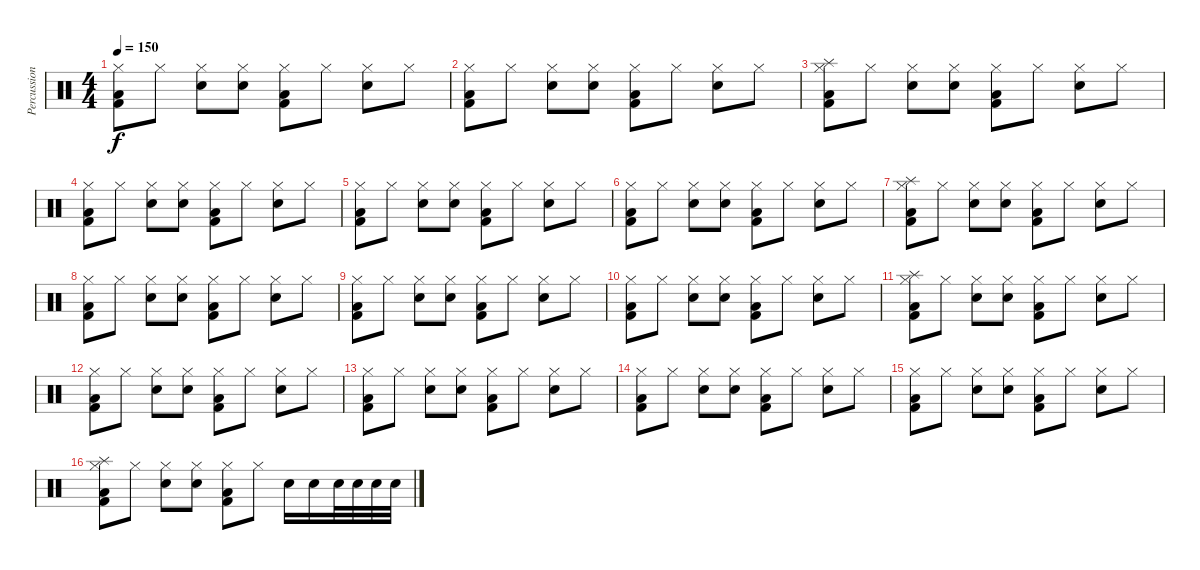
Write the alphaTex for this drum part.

\track ("Percussions" "Percussion") {instrument percussion}
\staff {score}
\articulation defaults
\ts (4 4)
\tempo 150
\clef neutral
\ks c
("Low Floor Tom (hit)" "Kick (hit) 2" "Hi-Hat (closed)").8{dy f} "Hi-Hat (closed)".8 ("Electric Snare (hit)" "Hi-Hat (closed)").8 ("Electric Snare (hit)" "Hi-Hat (closed)").8 ("Low Floor Tom (hit)" "Kick (hit) 2" "Hi-Hat (closed)").8 "Hi-Hat (closed)".8 ("Electric Snare (hit)" "Hi-Hat (closed)").8 "Hi-Hat (closed)".8 |
("Low Floor Tom (hit)" "Kick (hit) 2" "Hi-Hat (closed)").8 "Hi-Hat (closed)".8 ("Electric Snare (hit)" "Hi-Hat (closed)").8 ("Electric Snare (hit)" "Hi-Hat (closed)").8 ("Low Floor Tom (hit)" "Kick (hit) 2" "Hi-Hat (closed)").8 "Hi-Hat (closed)".8 ("Electric Snare (hit)" "Hi-Hat (closed)").8 "Hi-Hat (closed)".8 |
("Splash (hit)" "Low Floor Tom (hit)" "Kick (hit) 2" "Hi-Hat (closed)").8 "Hi-Hat (closed)".8 ("Electric Snare (hit)" "Hi-Hat (closed)").8 ("Electric Snare (hit)" "Hi-Hat (closed)").8 ("Low Floor Tom (hit)" "Kick (hit) 2" "Hi-Hat (closed)").8 "Hi-Hat (closed)".8 ("Electric Snare (hit)" "Hi-Hat (closed)").8 "Hi-Hat (closed)".8 |
("Low Floor Tom (hit)" "Kick (hit) 2" "Hi-Hat (closed)").8 "Hi-Hat (closed)".8 ("Electric Snare (hit)" "Hi-Hat (closed)").8 ("Electric Snare (hit)" "Hi-Hat (closed)").8 ("Low Floor Tom (hit)" "Kick (hit) 2" "Hi-Hat (closed)").8 "Hi-Hat (closed)".8 ("Electric Snare (hit)" "Hi-Hat (closed)").8 "Hi-Hat (closed)".8 |
("Low Floor Tom (hit)" "Kick (hit) 2" "Hi-Hat (closed)").8 "Hi-Hat (closed)".8 ("Electric Snare (hit)" "Hi-Hat (closed)").8 ("Electric Snare (hit)" "Hi-Hat (closed)").8 ("Low Floor Tom (hit)" "Kick (hit) 2" "Hi-Hat (closed)").8 "Hi-Hat (closed)".8 ("Electric Snare (hit)" "Hi-Hat (closed)").8 "Hi-Hat (closed)".8 |
("Low Floor Tom (hit)" "Kick (hit) 2" "Hi-Hat (closed)").8 "Hi-Hat (closed)".8 ("Electric Snare (hit)" "Hi-Hat (closed)").8 ("Electric Snare (hit)" "Hi-Hat (closed)").8 ("Low Floor Tom (hit)" "Kick (hit) 2" "Hi-Hat (closed)").8 "Hi-Hat (closed)".8 ("Electric Snare (hit)" "Hi-Hat (closed)").8 "Hi-Hat (closed)".8 |
("Splash (hit)" "Low Floor Tom (hit)" "Kick (hit) 2" "Hi-Hat (closed)").8 "Hi-Hat (closed)".8 ("Electric Snare (hit)" "Hi-Hat (closed)").8 ("Electric Snare (hit)" "Hi-Hat (closed)").8 ("Low Floor Tom (hit)" "Kick (hit) 2" "Hi-Hat (closed)").8 "Hi-Hat (closed)".8 ("Electric Snare (hit)" "Hi-Hat (closed)").8 "Hi-Hat (closed)".8 |
("Low Floor Tom (hit)" "Kick (hit) 2" "Hi-Hat (closed)").8 "Hi-Hat (closed)".8 ("Electric Snare (hit)" "Hi-Hat (closed)").8 ("Electric Snare (hit)" "Hi-Hat (closed)").8 ("Low Floor Tom (hit)" "Kick (hit) 2" "Hi-Hat (closed)").8 "Hi-Hat (closed)".8 ("Electric Snare (hit)" "Hi-Hat (closed)").8 "Hi-Hat (closed)".8 |
("Low Floor Tom (hit)" "Kick (hit) 2" "Hi-Hat (closed)").8 "Hi-Hat (closed)".8 ("Electric Snare (hit)" "Hi-Hat (closed)").8 ("Electric Snare (hit)" "Hi-Hat (closed)").8 ("Low Floor Tom (hit)" "Kick (hit) 2" "Hi-Hat (closed)").8 "Hi-Hat (closed)".8 ("Electric Snare (hit)" "Hi-Hat (closed)").8 "Hi-Hat (closed)".8 |
("Low Floor Tom (hit)" "Kick (hit) 2" "Hi-Hat (closed)").8 "Hi-Hat (closed)".8 ("Electric Snare (hit)" "Hi-Hat (closed)").8 ("Electric Snare (hit)" "Hi-Hat (closed)").8 ("Low Floor Tom (hit)" "Kick (hit) 2" "Hi-Hat (closed)").8 "Hi-Hat (closed)".8 ("Electric Snare (hit)" "Hi-Hat (closed)").8 "Hi-Hat (closed)".8 |
("Splash (hit)" "Low Floor Tom (hit)" "Kick (hit) 2" "Hi-Hat (closed)").8 "Hi-Hat (closed)".8 ("Electric Snare (hit)" "Hi-Hat (closed)").8 ("Electric Snare (hit)" "Hi-Hat (closed)").8 ("Low Floor Tom (hit)" "Kick (hit) 2" "Hi-Hat (closed)").8 "Hi-Hat (closed)".8 ("Electric Snare (hit)" "Hi-Hat (closed)").8 "Hi-Hat (closed)".8 |
("Low Floor Tom (hit)" "Kick (hit) 2" "Hi-Hat (closed)").8 "Hi-Hat (closed)".8 ("Electric Snare (hit)" "Hi-Hat (closed)").8 ("Electric Snare (hit)" "Hi-Hat (closed)").8 ("Low Floor Tom (hit)" "Kick (hit) 2" "Hi-Hat (closed)").8 "Hi-Hat (closed)".8 ("Electric Snare (hit)" "Hi-Hat (closed)").8 "Hi-Hat (closed)".8 |
("Low Floor Tom (hit)" "Kick (hit) 2" "Hi-Hat (closed)").8 "Hi-Hat (closed)".8 ("Electric Snare (hit)" "Hi-Hat (closed)").8 ("Electric Snare (hit)" "Hi-Hat (closed)").8 ("Low Floor Tom (hit)" "Kick (hit) 2" "Hi-Hat (closed)").8 "Hi-Hat (closed)".8 ("Electric Snare (hit)" "Hi-Hat (closed)").8 "Hi-Hat (closed)".8 |
("Low Floor Tom (hit)" "Kick (hit) 2" "Hi-Hat (closed)").8 "Hi-Hat (closed)".8 ("Electric Snare (hit)" "Hi-Hat (closed)").8 ("Electric Snare (hit)" "Hi-Hat (closed)").8 ("Low Floor Tom (hit)" "Kick (hit) 2" "Hi-Hat (closed)").8 "Hi-Hat (closed)".8 ("Electric Snare (hit)" "Hi-Hat (closed)").8 "Hi-Hat (closed)".8 |
("Low Floor Tom (hit)" "Kick (hit) 2" "Hi-Hat (closed)").8 "Hi-Hat (closed)".8 ("Electric Snare (hit)" "Hi-Hat (closed)").8 ("Electric Snare (hit)" "Hi-Hat (closed)").8 ("Low Floor Tom (hit)" "Kick (hit) 2" "Hi-Hat (closed)").8 "Hi-Hat (closed)".8 ("Electric Snare (hit)" "Hi-Hat (closed)").8 "Hi-Hat (closed)".8 |
("Splash (hit)" "Low Floor Tom (hit)" "Kick (hit) 2" "Hi-Hat (closed)").8 "Hi-Hat (closed)".8 ("Electric Snare (hit)" "Hi-Hat (closed)").8 ("Electric Snare (hit)" "Hi-Hat (closed)").8 ("Low Floor Tom (hit)" "Kick (hit) 2" "Hi-Hat (closed)").8 "Hi-Hat (closed)".8 "Electric Snare (hit)".16 "Electric Snare (hit)".16 "Electric Snare (hit)".32 "Electric Snare (hit)".32 "Electric Snare (hit)".32 "Electric Snare (hit)".32
